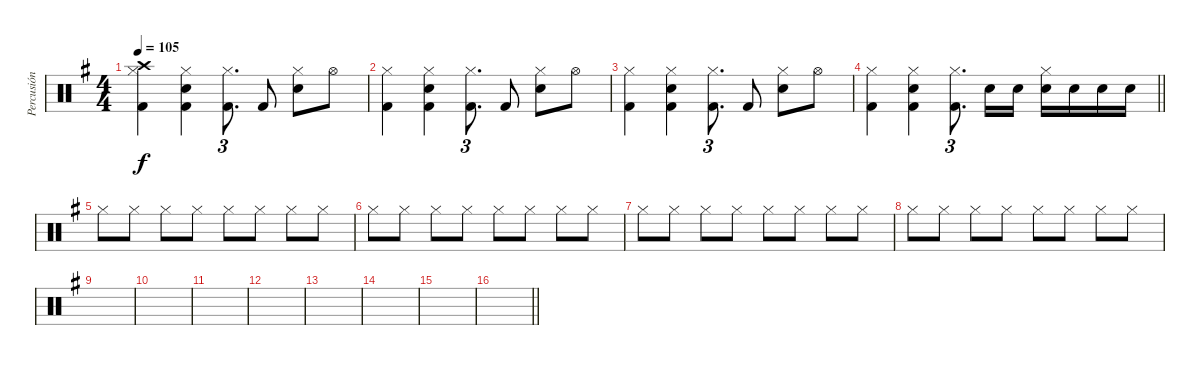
\track ("Percusión" "Percusión") {instrument percussion}
\staff {score}
\articulation defaults
\ts (4 4)
\tempo 105
\clef neutral
\ks g
("Hi-Hat (closed)" "Kick (hit) 2" "Crash high (hit)").4{dy f} ("Hi-Hat (closed)" "Electric Snare (hit)" "Kick (hit) 2").4 ("Hi-Hat (closed)" "Kick (hit) 2").8{d tu (3 2)} "Kick (hit) 2".8 ("Hi-Hat (closed)" "Electric Snare (hit)").8 "Hi-Hat (open)".8 |
("Hi-Hat (closed)" "Kick (hit) 2").4 ("Hi-Hat (closed)" "Electric Snare (hit)" "Kick (hit) 2").4 ("Hi-Hat (closed)" "Kick (hit) 2").8{d tu (3 2)} "Kick (hit) 2".8 ("Hi-Hat (closed)" "Electric Snare (hit)").8 "Hi-Hat (open)".8 |
("Hi-Hat (closed)" "Kick (hit) 2").4 ("Hi-Hat (closed)" "Electric Snare (hit)" "Kick (hit) 2").4 ("Hi-Hat (closed)" "Kick (hit) 2").8{d tu (3 2)} "Kick (hit) 2".8 ("Hi-Hat (closed)" "Electric Snare (hit)").8 "Hi-Hat (open)".8 |
\barLineRight lightlight
("Hi-Hat (closed)" "Kick (hit) 2").4 ("Hi-Hat (closed)" "Electric Snare (hit)" "Kick (hit) 2").4 ("Hi-Hat (closed)" "Kick (hit) 2").8{d tu (3 2)} "Electric Snare (hit)".16 "Electric Snare (hit)".16 ("Hi-Hat (closed)" "Electric Snare (hit)").16 "Electric Snare (hit)".16 "Electric Snare (hit)".16 "Electric Snare (hit)".16 |
"Hi-Hat (closed)".8 "Hi-Hat (closed)".8 "Hi-Hat (closed)".8 "Hi-Hat (closed)".8 "Hi-Hat (closed)".8 "Hi-Hat (closed)".8 "Hi-Hat (closed)".8 "Hi-Hat (closed)".8 |
"Hi-Hat (closed)".8 "Hi-Hat (closed)".8 "Hi-Hat (closed)".8 "Hi-Hat (closed)".8 "Hi-Hat (closed)".8 "Hi-Hat (closed)".8 "Hi-Hat (closed)".8 "Hi-Hat (closed)".8 |
"Hi-Hat (closed)".8 "Hi-Hat (closed)".8 "Hi-Hat (closed)".8 "Hi-Hat (closed)".8 "Hi-Hat (closed)".8 "Hi-Hat (closed)".8 "Hi-Hat (closed)".8 "Hi-Hat (closed)".8 |
"Hi-Hat (closed)".8 "Hi-Hat (closed)".8 "Hi-Hat (closed)".8 "Hi-Hat (closed)".8 "Hi-Hat (closed)".8 "Hi-Hat (closed)".8 "Hi-Hat (closed)".8 "Hi-Hat (closed)".8 |
|
|
|
|
|
|
|
\barLineRight lightlight
